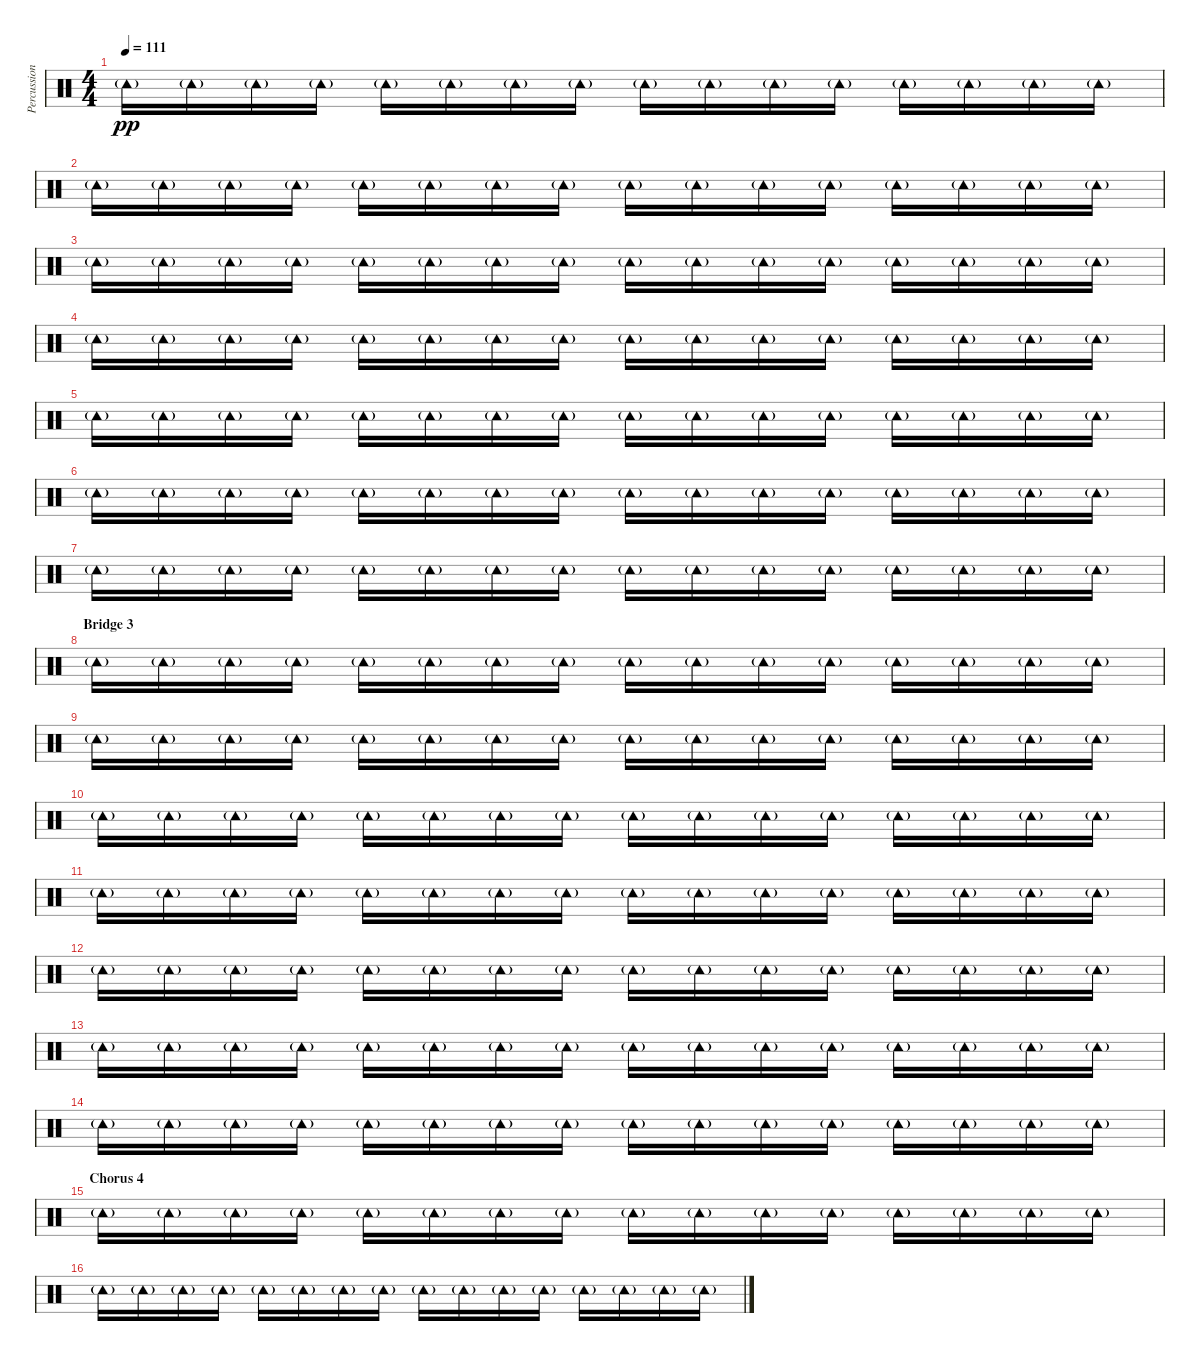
\track ("Percussion" "Percussion") {instrument percussion}
\staff {score}
\articulation defaults
\ts (4 4)
\tempo 111
\clef neutral
\ks c "Tambourine (hit)"{g}.16{dy pp} "Tambourine (hit)"{g}.16 "Tambourine (hit)"{g}.16 "Tambourine (hit)"{g}.16 "Tambourine (hit)"{g}.16 "Tambourine (hit)"{g}.16 "Tambourine (hit)"{g}.16 "Tambourine (hit)"{g}.16 "Tambourine (hit)"{g}.16 "Tambourine (hit)"{g}.16 "Tambourine (hit)"{g}.16 "Tambourine (hit)"{g}.16 "Tambourine (hit)"{g}.16 "Tambourine (hit)"{g}.16 "Tambourine (hit)"{g}.16 "Tambourine (hit)"{g}.16
|
"Tambourine (hit)"{g}.16 "Tambourine (hit)"{g}.16 "Tambourine (hit)"{g}.16 "Tambourine (hit)"{g}.16 "Tambourine (hit)"{g}.16 "Tambourine (hit)"{g}.16 "Tambourine (hit)"{g}.16 "Tambourine (hit)"{g}.16 "Tambourine (hit)"{g}.16 "Tambourine (hit)"{g}.16 "Tambourine (hit)"{g}.16 "Tambourine (hit)"{g}.16 "Tambourine (hit)"{g}.16 "Tambourine (hit)"{g}.16 "Tambourine (hit)"{g}.16 "Tambourine (hit)"{g}.16 |
"Tambourine (hit)"{g}.16 "Tambourine (hit)"{g}.16 "Tambourine (hit)"{g}.16 "Tambourine (hit)"{g}.16 "Tambourine (hit)"{g}.16 "Tambourine (hit)"{g}.16 "Tambourine (hit)"{g}.16 "Tambourine (hit)"{g}.16 "Tambourine (hit)"{g}.16 "Tambourine (hit)"{g}.16 "Tambourine (hit)"{g}.16 "Tambourine (hit)"{g}.16 "Tambourine (hit)"{g}.16 "Tambourine (hit)"{g}.16 "Tambourine (hit)"{g}.16 "Tambourine (hit)"{g}.16 |
"Tambourine (hit)"{g}.16 "Tambourine (hit)"{g}.16 "Tambourine (hit)"{g}.16 "Tambourine (hit)"{g}.16 "Tambourine (hit)"{g}.16 "Tambourine (hit)"{g}.16 "Tambourine (hit)"{g}.16 "Tambourine (hit)"{g}.16 "Tambourine (hit)"{g}.16 "Tambourine (hit)"{g}.16 "Tambourine (hit)"{g}.16 "Tambourine (hit)"{g}.16 "Tambourine (hit)"{g}.16 "Tambourine (hit)"{g}.16 "Tambourine (hit)"{g}.16 "Tambourine (hit)"{g}.16 |
"Tambourine (hit)"{g}.16 "Tambourine (hit)"{g}.16 "Tambourine (hit)"{g}.16 "Tambourine (hit)"{g}.16 "Tambourine (hit)"{g}.16 "Tambourine (hit)"{g}.16 "Tambourine (hit)"{g}.16 "Tambourine (hit)"{g}.16 "Tambourine (hit)"{g}.16 "Tambourine (hit)"{g}.16 "Tambourine (hit)"{g}.16 "Tambourine (hit)"{g}.16 "Tambourine (hit)"{g}.16 "Tambourine (hit)"{g}.16 "Tambourine (hit)"{g}.16 "Tambourine (hit)"{g}.16 |
"Tambourine (hit)"{g}.16 "Tambourine (hit)"{g}.16 "Tambourine (hit)"{g}.16 "Tambourine (hit)"{g}.16 "Tambourine (hit)"{g}.16 "Tambourine (hit)"{g}.16 "Tambourine (hit)"{g}.16 "Tambourine (hit)"{g}.16 "Tambourine (hit)"{g}.16 "Tambourine (hit)"{g}.16 "Tambourine (hit)"{g}.16 "Tambourine (hit)"{g}.16 "Tambourine (hit)"{g}.16 "Tambourine (hit)"{g}.16 "Tambourine (hit)"{g}.16 "Tambourine (hit)"{g}.16 |
"Tambourine (hit)"{g}.16 "Tambourine (hit)"{g}.16 "Tambourine (hit)"{g}.16 "Tambourine (hit)"{g}.16 "Tambourine (hit)"{g}.16 "Tambourine (hit)"{g}.16 "Tambourine (hit)"{g}.16 "Tambourine (hit)"{g}.16 "Tambourine (hit)"{g}.16 "Tambourine (hit)"{g}.16 "Tambourine (hit)"{g}.16 "Tambourine (hit)"{g}.16 "Tambourine (hit)"{g}.16 "Tambourine (hit)"{g}.16 "Tambourine (hit)"{g}.16 "Tambourine (hit)"{g}.16 |
\section ("" "Bridge 3")
"Tambourine (hit)"{g}.16 "Tambourine (hit)"{g}.16 "Tambourine (hit)"{g}.16 "Tambourine (hit)"{g}.16 "Tambourine (hit)"{g}.16 "Tambourine (hit)"{g}.16 "Tambourine (hit)"{g}.16 "Tambourine (hit)"{g}.16 "Tambourine (hit)"{g}.16 "Tambourine (hit)"{g}.16 "Tambourine (hit)"{g}.16 "Tambourine (hit)"{g}.16 "Tambourine (hit)"{g}.16 "Tambourine (hit)"{g}.16 "Tambourine (hit)"{g}.16 "Tambourine (hit)"{g}.16 |
"Tambourine (hit)"{g}.16 "Tambourine (hit)"{g}.16 "Tambourine (hit)"{g}.16 "Tambourine (hit)"{g}.16 "Tambourine (hit)"{g}.16 "Tambourine (hit)"{g}.16 "Tambourine (hit)"{g}.16 "Tambourine (hit)"{g}.16 "Tambourine (hit)"{g}.16 "Tambourine (hit)"{g}.16 "Tambourine (hit)"{g}.16 "Tambourine (hit)"{g}.16 "Tambourine (hit)"{g}.16 "Tambourine (hit)"{g}.16 "Tambourine (hit)"{g}.16 "Tambourine (hit)"{g}.16 |
"Tambourine (hit)"{g}.16 "Tambourine (hit)"{g}.16 "Tambourine (hit)"{g}.16 "Tambourine (hit)"{g}.16 "Tambourine (hit)"{g}.16 "Tambourine (hit)"{g}.16 "Tambourine (hit)"{g}.16 "Tambourine (hit)"{g}.16 "Tambourine (hit)"{g}.16 "Tambourine (hit)"{g}.16 "Tambourine (hit)"{g}.16 "Tambourine (hit)"{g}.16 "Tambourine (hit)"{g}.16 "Tambourine (hit)"{g}.16 "Tambourine (hit)"{g}.16 "Tambourine (hit)"{g}.16 |
"Tambourine (hit)"{g}.16 "Tambourine (hit)"{g}.16 "Tambourine (hit)"{g}.16 "Tambourine (hit)"{g}.16 "Tambourine (hit)"{g}.16 "Tambourine (hit)"{g}.16 "Tambourine (hit)"{g}.16 "Tambourine (hit)"{g}.16 "Tambourine (hit)"{g}.16 "Tambourine (hit)"{g}.16 "Tambourine (hit)"{g}.16 "Tambourine (hit)"{g}.16 "Tambourine (hit)"{g}.16 "Tambourine (hit)"{g}.16 "Tambourine (hit)"{g}.16 "Tambourine (hit)"{g}.16 |
"Tambourine (hit)"{g}.16 "Tambourine (hit)"{g}.16 "Tambourine (hit)"{g}.16 "Tambourine (hit)"{g}.16 "Tambourine (hit)"{g}.16 "Tambourine (hit)"{g}.16 "Tambourine (hit)"{g}.16 "Tambourine (hit)"{g}.16 "Tambourine (hit)"{g}.16 "Tambourine (hit)"{g}.16 "Tambourine (hit)"{g}.16 "Tambourine (hit)"{g}.16 "Tambourine (hit)"{g}.16 "Tambourine (hit)"{g}.16 "Tambourine (hit)"{g}.16 "Tambourine (hit)"{g}.16 |
"Tambourine (hit)"{g}.16 "Tambourine (hit)"{g}.16 "Tambourine (hit)"{g}.16 "Tambourine (hit)"{g}.16 "Tambourine (hit)"{g}.16 "Tambourine (hit)"{g}.16 "Tambourine (hit)"{g}.16 "Tambourine (hit)"{g}.16 "Tambourine (hit)"{g}.16 "Tambourine (hit)"{g}.16 "Tambourine (hit)"{g}.16 "Tambourine (hit)"{g}.16 "Tambourine (hit)"{g}.16 "Tambourine (hit)"{g}.16 "Tambourine (hit)"{g}.16 "Tambourine (hit)"{g}.16 |
"Tambourine (hit)"{g}.16 "Tambourine (hit)"{g}.16 "Tambourine (hit)"{g}.16 "Tambourine (hit)"{g}.16 "Tambourine (hit)"{g}.16 "Tambourine (hit)"{g}.16 "Tambourine (hit)"{g}.16 "Tambourine (hit)"{g}.16 "Tambourine (hit)"{g}.16 "Tambourine (hit)"{g}.16 "Tambourine (hit)"{g}.16 "Tambourine (hit)"{g}.16 "Tambourine (hit)"{g}.16 "Tambourine (hit)"{g}.16 "Tambourine (hit)"{g}.16 "Tambourine (hit)"{g}.16 |
\section ("" "Chorus 4")
"Tambourine (hit)"{g}.16 "Tambourine (hit)"{g}.16 "Tambourine (hit)"{g}.16 "Tambourine (hit)"{g}.16 "Tambourine (hit)"{g}.16 "Tambourine (hit)"{g}.16 "Tambourine (hit)"{g}.16 "Tambourine (hit)"{g}.16 "Tambourine (hit)"{g}.16 "Tambourine (hit)"{g}.16 "Tambourine (hit)"{g}.16 "Tambourine (hit)"{g}.16 "Tambourine (hit)"{g}.16 "Tambourine (hit)"{g}.16 "Tambourine (hit)"{g}.16 "Tambourine (hit)"{g}.16 |
"Tambourine (hit)"{g}.16 "Tambourine (hit)"{g}.16 "Tambourine (hit)"{g}.16 "Tambourine (hit)"{g}.16 "Tambourine (hit)"{g}.16 "Tambourine (hit)"{g}.16 "Tambourine (hit)"{g}.16 "Tambourine (hit)"{g}.16 "Tambourine (hit)"{g}.16 "Tambourine (hit)"{g}.16 "Tambourine (hit)"{g}.16 "Tambourine (hit)"{g}.16 "Tambourine (hit)"{g}.16 "Tambourine (hit)"{g}.16 "Tambourine (hit)"{g}.16 "Tambourine (hit)"{g}.16
